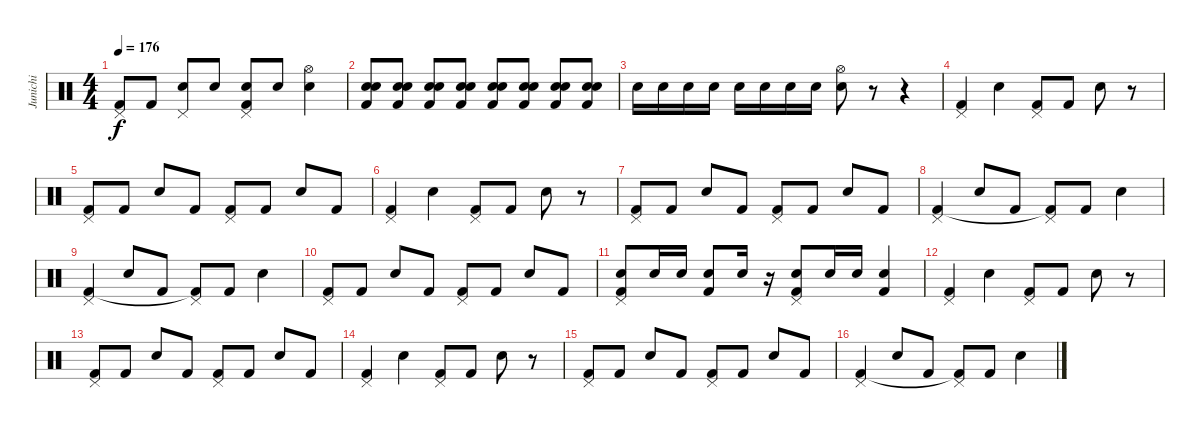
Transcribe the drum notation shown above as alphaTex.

\track ("Junichi" "Junichi") {instrument percussion}
\staff {score}
\articulation defaults
\ts (4 4)
\tempo 176
\clef neutral
\ks c
("Pedal Hi-Hat (hit)" "Kick (hit) 2"{t}).8{dy f} "Kick (hit) 2".8 ("Pedal Hi-Hat (hit)" "Snare (hit) 2").8 "Snare (hit) 2".8 ("Pedal Hi-Hat (hit)" "Snare (hit) 2" "Kick (hit) 2").8 "Snare (hit) 2".8 ("Hi-Hat (open)" "Snare (hit) 2").4 |
("Snare (hit) 2" "Snare (hit) 2" "Kick (hit) 2").8 ("Snare (hit) 2" "Snare (hit) 2" "Kick (hit) 2").8 ("Snare (hit) 2" "Snare (hit) 2" "Kick (hit) 2").8 ("Snare (hit) 2" "Snare (hit) 2" "Kick (hit) 2").8 ("Snare (hit) 2" "Snare (hit) 2" "Kick (hit) 2").8 ("Snare (hit) 2" "Snare (hit) 2" "Kick (hit) 2").8 ("Snare (hit) 2" "Snare (hit) 2" "Kick (hit) 2").8 ("Snare (hit) 2" "Snare (hit) 2" "Kick (hit) 2").8 |
"Snare (hit) 2".16 "Snare (hit) 2".16 "Snare (hit) 2".16 "Snare (hit) 2".16 "Snare (hit) 2".16 "Snare (hit) 2".16 "Snare (hit) 2".16 "Snare (hit) 2".16 ("Hi-Hat (open)" "Snare (hit) 2").8 r.8 r.4 |
("Pedal Hi-Hat (hit)" "Kick (hit) 2").4 "Snare (hit) 2".4 ("Pedal Hi-Hat (hit)" "Kick (hit) 2").8 "Kick (hit) 2".8 "Snare (hit) 2".8 r.8 |
("Pedal Hi-Hat (hit)" "Kick (hit) 2").8 "Kick (hit) 2".8 "Snare (hit) 2".8 "Kick (hit) 2".8 ("Pedal Hi-Hat (hit)" "Kick (hit) 2").8 "Kick (hit) 2".8 "Snare (hit) 2".8 "Kick (hit) 2".8 |
("Pedal Hi-Hat (hit)" "Kick (hit) 2").4 "Snare (hit) 2".4 ("Pedal Hi-Hat (hit)" "Kick (hit) 2").8 "Kick (hit) 2".8 "Snare (hit) 2".8 r.8 |
("Pedal Hi-Hat (hit)" "Kick (hit) 2").8 "Kick (hit) 2".8 "Snare (hit) 2".8 "Kick (hit) 2".8 ("Pedal Hi-Hat (hit)" "Kick (hit) 2").8 "Kick (hit) 2".8 "Snare (hit) 2".8 "Kick (hit) 2".8 |
("Pedal Hi-Hat (hit)" "Kick (hit) 2").4 "Snare (hit) 2".8 "Kick (hit) 2".8 ("Pedal Hi-Hat (hit)" "Kick (hit) 2"{t}).8 "Kick (hit) 2".8 "Snare (hit) 2".4 |
("Pedal Hi-Hat (hit)" "Kick (hit) 2").4 "Snare (hit) 2".8 "Kick (hit) 2".8 ("Pedal Hi-Hat (hit)" "Kick (hit) 2"{t}).8 "Kick (hit) 2".8 "Snare (hit) 2".4 |
("Pedal Hi-Hat (hit)" "Kick (hit) 2").8 "Kick (hit) 2".8 "Snare (hit) 2".8 "Kick (hit) 2".8 ("Pedal Hi-Hat (hit)" "Kick (hit) 2").8 "Kick (hit) 2".8 "Snare (hit) 2".8 "Kick (hit) 2".8 |
("Pedal Hi-Hat (hit)" "Snare (hit) 2" "Kick (hit) 2").8 "Snare (hit) 2".16 "Snare (hit) 2".16 ("Snare (hit) 2" "Kick (hit) 2").8 "Snare (hit) 2".16 r.16 ("Pedal Hi-Hat (hit)" "Snare (hit) 2" "Kick (hit) 2").8 "Snare (hit) 2".16 "Snare (hit) 2".16 ("Snare (hit) 2" "Kick (hit) 2").4 |
("Pedal Hi-Hat (hit)" "Kick (hit) 2").4 "Snare (hit) 2".4 ("Pedal Hi-Hat (hit)" "Kick (hit) 2").8 "Kick (hit) 2".8 "Snare (hit) 2".8 r.8 |
("Pedal Hi-Hat (hit)" "Kick (hit) 2").8 "Kick (hit) 2".8 "Snare (hit) 2".8 "Kick (hit) 2".8 ("Pedal Hi-Hat (hit)" "Kick (hit) 2").8 "Kick (hit) 2".8 "Snare (hit) 2".8 "Kick (hit) 2".8 |
("Pedal Hi-Hat (hit)" "Kick (hit) 2").4 "Snare (hit) 2".4 ("Pedal Hi-Hat (hit)" "Kick (hit) 2").8 "Kick (hit) 2".8 "Snare (hit) 2".8 r.8 |
("Pedal Hi-Hat (hit)" "Kick (hit) 2").8 "Kick (hit) 2".8 "Snare (hit) 2".8 "Kick (hit) 2".8 ("Pedal Hi-Hat (hit)" "Kick (hit) 2").8 "Kick (hit) 2".8 "Snare (hit) 2".8 "Kick (hit) 2".8 |
("Pedal Hi-Hat (hit)" "Kick (hit) 2").4 "Snare (hit) 2".8 "Kick (hit) 2".8 ("Pedal Hi-Hat (hit)" "Kick (hit) 2"{t}).8 "Kick (hit) 2".8 "Snare (hit) 2".4
